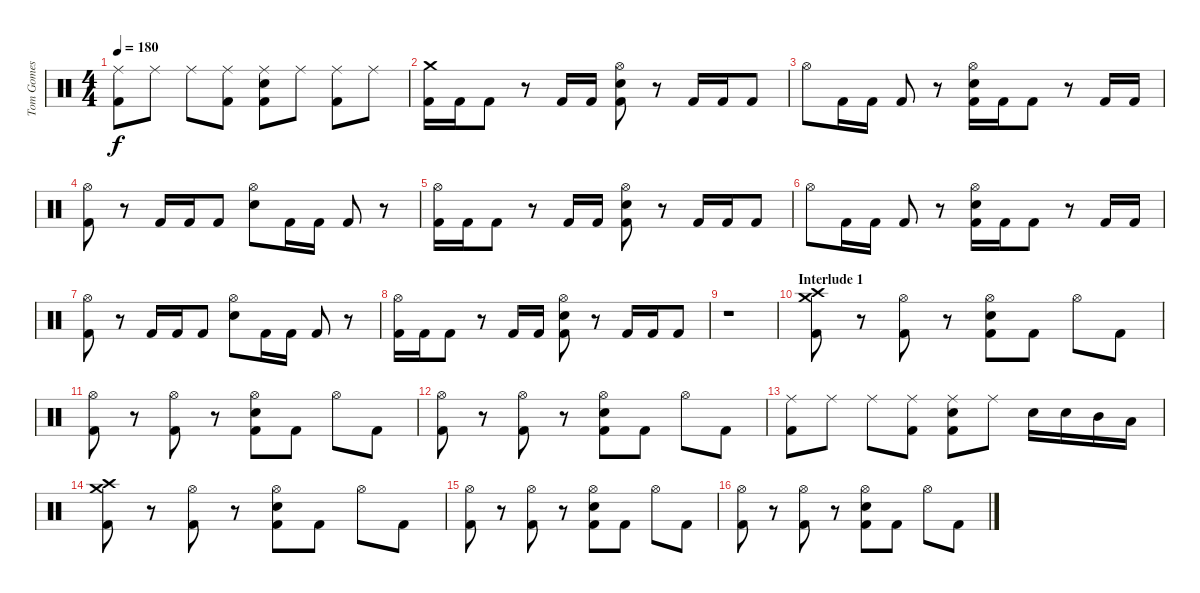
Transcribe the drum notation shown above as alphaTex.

\track ("Tom Gomes" "Tom Gomes") {instrument percussion}
\staff {score}
\articulation defaults
\ts (4 4)
\tempo 180
\clef neutral
\ks c
("Ride (middle)" "Kick (hit) 2").8{dy f} "Ride (middle)".8 "Ride (middle)".8 ("Ride (middle)" "Kick (hit) 2").8 ("Ride (middle)" "Snare (hit) 2" "Kick (hit) 2").8 "Ride (middle)".8 ("Ride (middle)" "Kick (hit) 2").8 "Ride (middle)".8 |
("Crash medium (hit)" "Kick (hit) 2").16 "Kick (hit) 2".16 "Kick (hit) 2".8 r.8 "Kick (hit) 2".16 "Kick (hit) 2".16 ("Hi-Hat (open)" "Snare (hit) 2" "Kick (hit) 2").8 r.8 "Kick (hit) 2".16 "Kick (hit) 2".16 "Kick (hit) 2".8 |
"Hi-Hat (open)".8 "Kick (hit) 2".16 "Kick (hit) 2".16 "Kick (hit) 2".8 r.8 ("Hi-Hat (open)" "Snare (hit) 2" "Kick (hit) 2").16 "Kick (hit) 2".16 "Kick (hit) 2".8 r.8 "Kick (hit) 2".16 "Kick (hit) 2".16 |
("Hi-Hat (open)" "Kick (hit) 2").8 r.8 "Kick (hit) 2".16 "Kick (hit) 2".16 "Kick (hit) 2".8 ("Hi-Hat (open)" "Snare (hit) 2").8 "Kick (hit) 2".16 "Kick (hit) 2".16 "Kick (hit) 2".8 r.8 |
("Hi-Hat (open)" "Kick (hit) 2").16 "Kick (hit) 2".16 "Kick (hit) 2".8 r.8 "Kick (hit) 2".16 "Kick (hit) 2".16 ("Hi-Hat (open)" "Snare (hit) 2" "Kick (hit) 2").8 r.8 "Kick (hit) 2".16 "Kick (hit) 2".16 "Kick (hit) 2".8 |
"Hi-Hat (open)".8 "Kick (hit) 2".16 "Kick (hit) 2".16 "Kick (hit) 2".8 r.8 ("Hi-Hat (open)" "Snare (hit) 2" "Kick (hit) 2").16 "Kick (hit) 2".16 "Kick (hit) 2".8 r.8 "Kick (hit) 2".16 "Kick (hit) 2".16 |
("Hi-Hat (open)" "Kick (hit) 2").8 r.8 "Kick (hit) 2".16 "Kick (hit) 2".16 "Kick (hit) 2".8 ("Hi-Hat (open)" "Snare (hit) 2").8 "Kick (hit) 2".16 "Kick (hit) 2".16 "Kick (hit) 2".8 r.8 |
("Hi-Hat (open)" "Kick (hit) 2").16 "Kick (hit) 2".16 "Kick (hit) 2".8 r.8 "Kick (hit) 2".16 "Kick (hit) 2".16 ("Hi-Hat (open)" "Snare (hit) 2" "Kick (hit) 2").8 r.8 "Kick (hit) 2".16 "Kick (hit) 2".16 "Kick (hit) 2".8 |
r.1 |
\section ("" "Interlude 1")
("Crash high (hit)" "Crash medium (hit)" "Kick (hit) 2").8 r.8 ("Hi-Hat (open)" "Kick (hit) 2").8 r.8 ("Hi-Hat (open)" "Snare (hit) 2" "Kick (hit) 2").8 "Kick (hit) 2".8 "Hi-Hat (open)".8 "Kick (hit) 2".8 |
("Hi-Hat (open)" "Kick (hit) 2").8 r.8 ("Hi-Hat (open)" "Kick (hit) 2").8 r.8 ("Hi-Hat (open)" "Snare (hit) 2" "Kick (hit) 2").8 "Kick (hit) 2".8 "Hi-Hat (open)".8 "Kick (hit) 2".8 |
("Hi-Hat (open)" "Kick (hit) 2").8 r.8 ("Hi-Hat (open)" "Kick (hit) 2").8 r.8 ("Hi-Hat (open)" "Snare (hit) 2" "Kick (hit) 2").8 "Kick (hit) 2".8 "Hi-Hat (open)".8 "Kick (hit) 2".8 |
("Ride (middle)" "Kick (hit) 2").8 "Ride (middle)".8 "Ride (middle)".8 ("Ride (middle)" "Kick (hit) 2").8 ("Ride (middle)" "Snare (hit) 2" "Kick (hit) 2").8 "Ride (middle)".8 "Snare (hit) 2".16 "Snare (hit) 2".16 "Mid Tom (hit)".16 "Low Tom (hit)".16 |
("Crash high (hit)" "Crash medium (hit)" "Kick (hit) 2").8 r.8 ("Hi-Hat (open)" "Kick (hit) 2").8 r.8 ("Hi-Hat (open)" "Snare (hit) 2" "Kick (hit) 2").8 "Kick (hit) 2".8 "Hi-Hat (open)".8 "Kick (hit) 2".8 |
("Hi-Hat (open)" "Kick (hit) 2").8 r.8 ("Hi-Hat (open)" "Kick (hit) 2").8 r.8 ("Hi-Hat (open)" "Snare (hit) 2" "Kick (hit) 2").8 "Kick (hit) 2".8 "Hi-Hat (open)".8 "Kick (hit) 2".8 |
("Hi-Hat (open)" "Kick (hit) 2").8 r.8 ("Hi-Hat (open)" "Kick (hit) 2").8 r.8 ("Hi-Hat (open)" "Snare (hit) 2" "Kick (hit) 2").8 "Kick (hit) 2".8 "Hi-Hat (open)".8 "Kick (hit) 2".8
